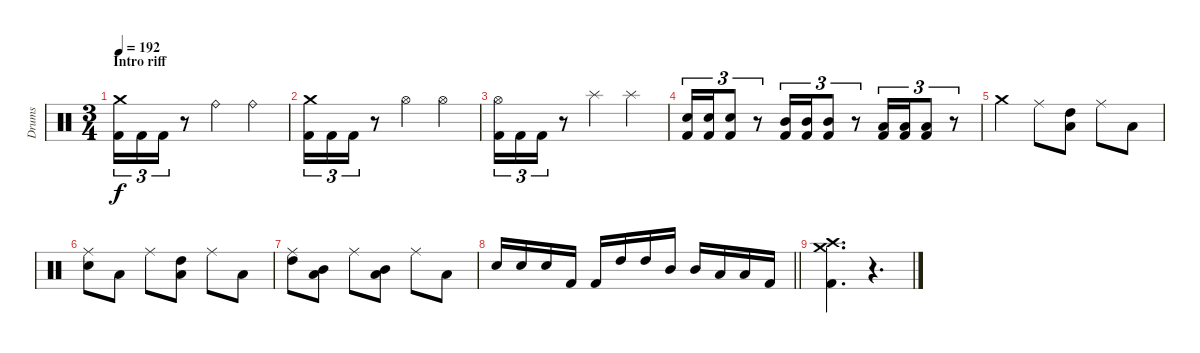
\track ("Drums" "Drums") {instrument percussion}
\staff {score}
\articulation defaults
\ts (3 4)
\section ("" "Intro riff")
\tempo 192
\clef neutral
\ks c
("Crash medium (hit)" "Kick (hit) 2").16{tu (3 2) dy f} "Kick (hit) 2".16{tu (3 2)} "Kick (hit) 2".16{tu (3 2)} r.8 "Ride (bell)".4 "Ride (bell)".4 |
("Crash medium (hit)" "Kick (hit) 2").16{tu (3 2)} "Kick (hit) 2".16{tu (3 2)} "Kick (hit) 2".16{tu (3 2)} r.8 "Hi-Hat (open)".4 "Hi-Hat (open)".4 |
("Hi-Hat (open)" "Kick (hit) 2").16{tu (3 2)} "Kick (hit) 2".16{tu (3 2)} "Kick (hit) 2".16{tu (3 2)} r.8 "Splash (hit)".4 "Splash (hit)".4 |
("Electric Snare (hit)" "Kick (hit) 2").16{tu (3 2)} ("Electric Snare (hit)" "Kick (hit) 2").16{tu (3 2)} ("Electric Snare (hit)" "Kick (hit) 2").8{tu (3 2)} r.8{tu (3 2)} ("Mid Tom (hit)" "Kick (hit) 2").16{tu (3 2)} ("Mid Tom (hit)" "Kick (hit) 2").16{tu (3 2)} ("Mid Tom (hit)" "Kick (hit) 2").8{tu (3 2)} r.8{tu (3 2)} ("Low Tom (hit)" "Kick (hit) 2").16{tu (3 2)} ("Low Tom (hit)" "Kick (hit) 2").16{tu (3 2)} ("Low Tom (hit)" "Kick (hit) 2").8{tu (3 2)} r.8{tu (3 2)} |
"Crash medium (hit)".4 "Ride (middle)".8 ("High Tom (hit)" "Low Tom (hit)").8 "Ride (middle)".8 "Low Tom (hit)".8 |
("Ride (middle)" "Electric Snare (hit)").8 "Low Tom (hit)".8 "Ride (middle)".8 ("High Tom (hit)" "Low Tom (hit)").8 "Ride (middle)".8 "Low Tom (hit)".8 |
("Ride (middle)" "High Tom (hit)").8 ("Mid Tom (hit)" "Low Tom (hit)").8 "Ride (middle)".8 ("Mid Tom (hit)" "Low Tom (hit)").8 "Ride (middle)".8 "Low Tom (hit)".8 |
\barLineRight lightlight "Electric Snare (hit)".16 "Electric Snare (hit)".16 "Electric Snare (hit)".16 "Kick (hit) 2".16 "Kick (hit) 2".16 "High Tom (hit)".16 "High Tom (hit)".16 "Mid Tom (hit)".16 "Mid Tom (hit)".16 "Low Tom (hit)".16 "Low Tom (hit)".16 "Kick (hit) 2".16
|
("Crash medium (hit)" "Crash high (hit)" "Kick (hit) 2").4{d volume 0} r.4{d}
